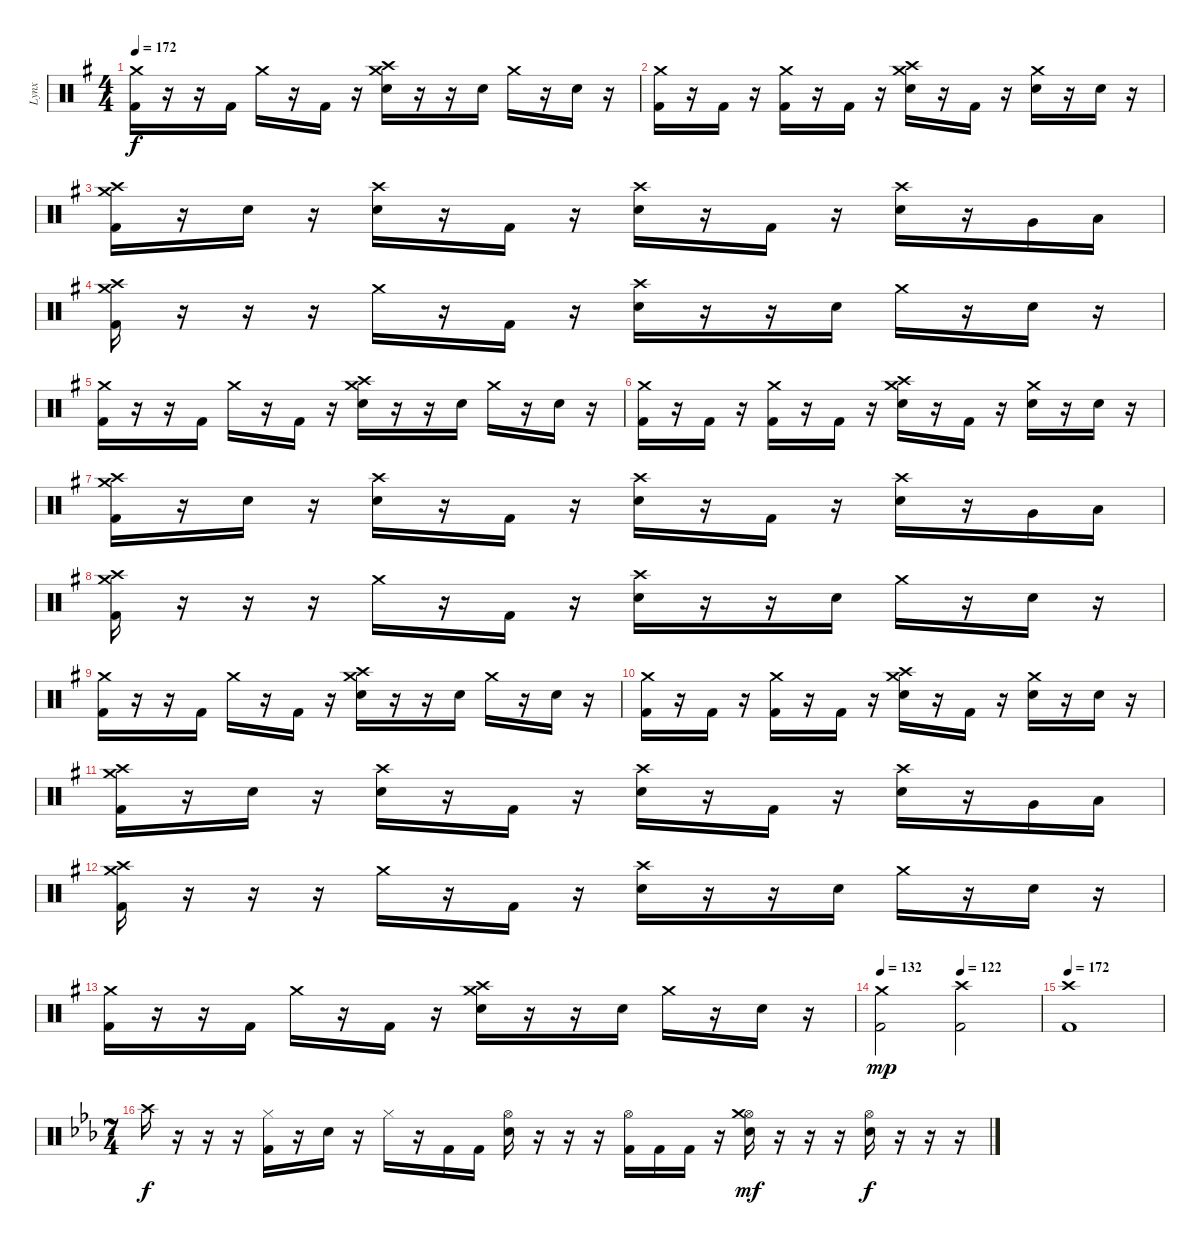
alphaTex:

\track ("Lynx" "Lynx") {instrument percussion}
\staff {score}
\articulation defaults
\ts (4 4)
\tempo 172
\clef neutral
\ks g
("Crash medium (hit)" "Kick (hit) 2").16{dy f} r.16 r.16 "Kick (hit) 2".16 "Crash medium (hit)".16 r.16 "Kick (hit) 2".16 r.16 ("Crash medium (hit)" "Crash high (hit)" "Electric Snare (hit)").16 r.16 r.16 "Electric Snare (hit)".16 "Crash medium (hit)".16 r.16 "Electric Snare (hit)".16 r.16 |
("Crash medium (hit)" "Kick (hit) 2").16 r.16 "Kick (hit) 2".16 r.16 ("Crash medium (hit)" "Kick (hit) 2").16 r.16 "Kick (hit) 2".16 r.16 ("Crash medium (hit)" "Crash high (hit)" "Electric Snare (hit)").16 r.16 "Kick (hit) 2".16 r.16 ("Crash medium (hit)" "Electric Snare (hit)").16 r.16 "Electric Snare (hit)".16 r.16 |
("Crash medium (hit)" "Crash high (hit)" "Kick (hit) 2").16 r.16 "Electric Snare (hit)".16 r.16 ("Crash high (hit)" "Electric Snare (hit)").16 r.16 "Kick (hit) 2".16 r.16 ("Crash high (hit)" "Electric Snare (hit)").16 r.16 "Kick (hit) 2".16 r.16 ("Crash high (hit)" "Electric Snare (hit)").16 r.16 "Very Low Tom (hit)".16 "Low Floor Tom (hit)".16 |
("Crash high (hit)" "Crash medium (hit)" "Kick (hit) 2").16 r.16 r.16 r.16 "Crash medium (hit)".16 r.16 "Kick (hit) 2".16 r.16 ("Crash high (hit)" "Electric Snare (hit)").16 r.16 r.16 "Electric Snare (hit)".16 "Crash medium (hit)".16 r.16 "Electric Snare (hit)".16 r.16 |
("Crash medium (hit)" "Kick (hit) 2").16 r.16 r.16 "Kick (hit) 2".16 "Crash medium (hit)".16 r.16 "Kick (hit) 2".16 r.16 ("Crash medium (hit)" "Crash high (hit)" "Electric Snare (hit)").16 r.16 r.16 "Electric Snare (hit)".16 "Crash medium (hit)".16 r.16 "Electric Snare (hit)".16 r.16 |
("Crash medium (hit)" "Kick (hit) 2").16 r.16 "Kick (hit) 2".16 r.16 ("Crash medium (hit)" "Kick (hit) 2").16 r.16 "Kick (hit) 2".16 r.16 ("Crash medium (hit)" "Crash high (hit)" "Electric Snare (hit)").16 r.16 "Kick (hit) 2".16 r.16 ("Crash medium (hit)" "Electric Snare (hit)").16 r.16 "Electric Snare (hit)".16 r.16 |
("Crash medium (hit)" "Crash high (hit)" "Kick (hit) 2").16 r.16 "Electric Snare (hit)".16 r.16 ("Crash high (hit)" "Electric Snare (hit)").16 r.16 "Kick (hit) 2".16 r.16 ("Crash high (hit)" "Electric Snare (hit)").16 r.16 "Kick (hit) 2".16 r.16 ("Crash high (hit)" "Electric Snare (hit)").16 r.16 "Very Low Tom (hit)".16 "Low Floor Tom (hit)".16 |
("Crash high (hit)" "Crash medium (hit)" "Kick (hit) 2").16 r.16 r.16 r.16 "Crash medium (hit)".16 r.16 "Kick (hit) 2".16 r.16 ("Crash high (hit)" "Electric Snare (hit)").16 r.16 r.16 "Electric Snare (hit)".16 "Crash medium (hit)".16 r.16 "Electric Snare (hit)".16 r.16 |
("Crash medium (hit)" "Kick (hit) 2").16 r.16 r.16 "Kick (hit) 2".16 "Crash medium (hit)".16 r.16 "Kick (hit) 2".16 r.16 ("Crash medium (hit)" "Crash high (hit)" "Electric Snare (hit)").16 r.16 r.16 "Electric Snare (hit)".16 "Crash medium (hit)".16 r.16 "Electric Snare (hit)".16 r.16 |
("Crash medium (hit)" "Kick (hit) 2").16 r.16 "Kick (hit) 2".16 r.16 ("Crash medium (hit)" "Kick (hit) 2").16 r.16 "Kick (hit) 2".16 r.16 ("Crash medium (hit)" "Crash high (hit)" "Electric Snare (hit)").16 r.16 "Kick (hit) 2".16 r.16 ("Crash medium (hit)" "Electric Snare (hit)").16 r.16 "Electric Snare (hit)".16 r.16 |
("Crash medium (hit)" "Crash high (hit)" "Kick (hit) 2").16 r.16 "Electric Snare (hit)".16 r.16 ("Crash high (hit)" "Electric Snare (hit)").16 r.16 "Kick (hit) 2".16 r.16 ("Crash high (hit)" "Electric Snare (hit)").16 r.16 "Kick (hit) 2".16 r.16 ("Crash high (hit)" "Electric Snare (hit)").16 r.16 "Very Low Tom (hit)".16 "Low Floor Tom (hit)".16 |
("Crash high (hit)" "Crash medium (hit)" "Kick (hit) 2").16 r.16 r.16 r.16 "Crash medium (hit)".16 r.16 "Kick (hit) 2".16 r.16 ("Crash high (hit)" "Electric Snare (hit)").16 r.16 r.16 "Electric Snare (hit)".16 "Crash medium (hit)".16 r.16 "Electric Snare (hit)".16 r.16 |
("Crash medium (hit)" "Kick (hit) 2").16 r.16 r.16 "Kick (hit) 2".16 "Crash medium (hit)".16 r.16 "Kick (hit) 2".16 r.16 ("Crash medium (hit)" "Crash high (hit)" "Electric Snare (hit)").16 r.16 r.16 "Electric Snare (hit)".16 "Crash medium (hit)".16 r.16 "Electric Snare (hit)".16 r.16 |
\tempo 132
\tempo (122 0.5)
("Crash medium (hit)" "Kick (hit) 2").2{dy mp} ("Crash high (hit)" "Kick (hit) 2").2 |
\tempo 172
("Crash high (hit)" "Kick (hit) 2").1 |
\ts (7 4)
\ks eb "Crash high (hit)".16{dy f}
r.16 r.16 r.16 ("Hi-Hat (closed)" "Kick (hit) 2").16 r.16 "Electric Snare (hit)".16 r.16 "Hi-Hat (closed)".16 r.16 "Kick (hit) 2".16 "Kick (hit) 2".16 ("Hi-Hat (open)" "Electric Snare (hit)").16 r.16 r.16 r.16 ("Hi-Hat (open)" "Kick (hit) 2").16 "Kick (hit) 2".16 "Kick (hit) 2".16 r.16 ("Hi-Hat (open)" "Crash medium (hit)" "Electric Snare (hit)").16{dy mf} r.16 r.16 r.16 ("Hi-Hat (open)" "Electric Snare (hit)").16{dy f} r.16 r.16 r.16
